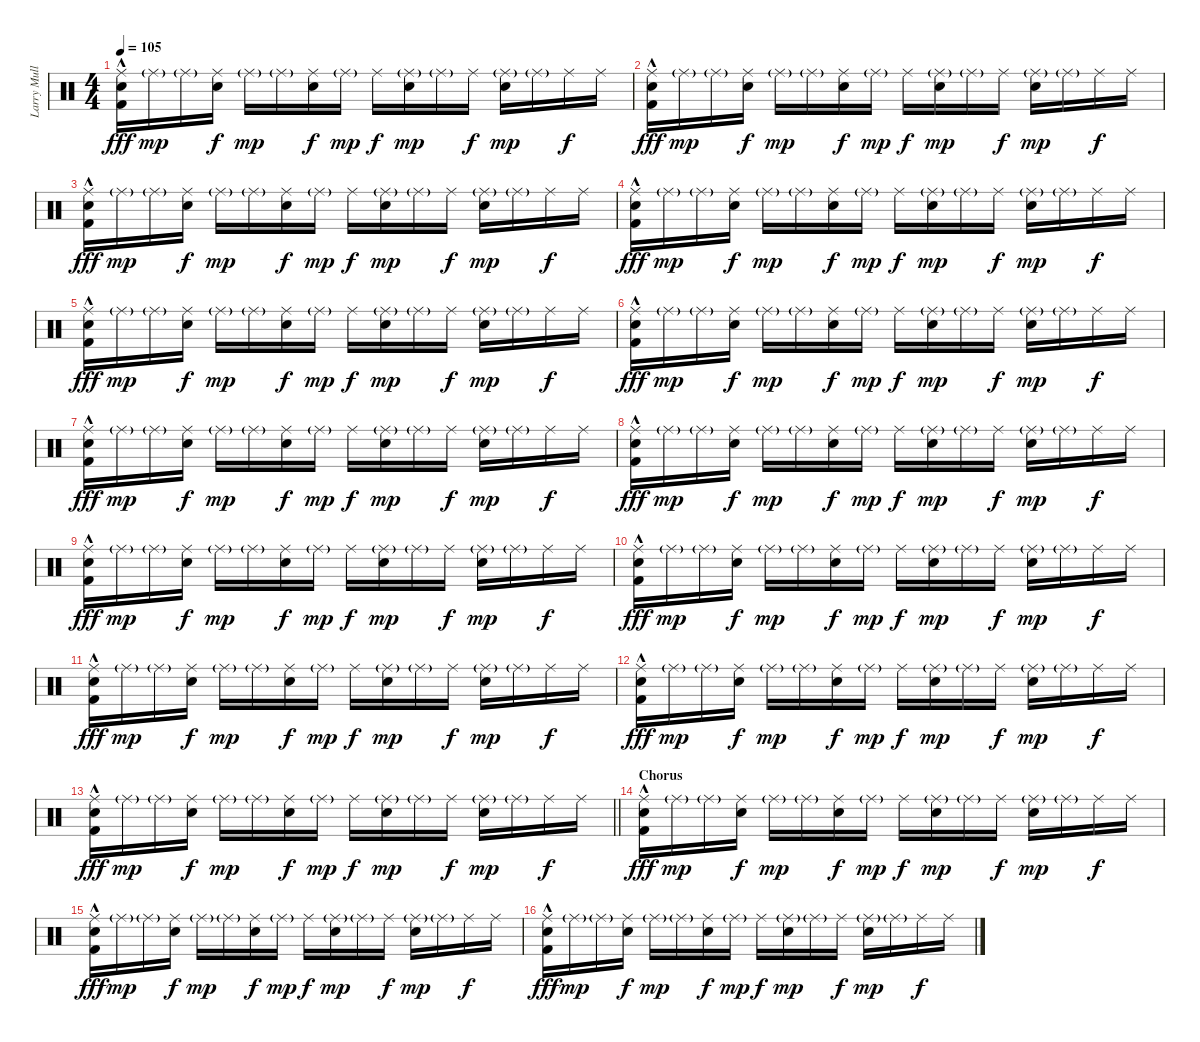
\track ("Larry Mullen Jr." "Larry Mull") {instrument percussion}
\staff {score}
\articulation defaults
\ts (4 4)
\tempo 105
\clef neutral
\ks c
("Ride (middle)" "Electric Snare (hit)" "Kick (hit) 2"{hac}).16{dy fff} "Ride (middle)"{g}.16{dy mp} "Ride (middle)"{g}.16 ("Ride (middle)" "Electric Snare (hit)").16{dy f} "Ride (middle)"{g}.16{dy mp} "Ride (middle)"{g}.16 ("Ride (middle)" "Electric Snare (hit)").16{dy f} "Ride (middle)"{g}.16{dy mp} "Ride (middle)".16{dy f} ("Ride (middle)"{g} "Electric Snare (hit)").16{dy mp} "Ride (middle)"{g}.16 "Ride (middle)".16{dy f} ("Ride (middle)"{g} "Electric Snare (hit)").16{dy mp} "Ride (middle)"{g}.16 "Ride (middle)".16{dy f} "Ride (middle)".16 |
("Ride (middle)" "Electric Snare (hit)" "Kick (hit) 2"{hac}).16{dy fff} "Ride (middle)"{g}.16{dy mp} "Ride (middle)"{g}.16 ("Ride (middle)" "Electric Snare (hit)").16{dy f} "Ride (middle)"{g}.16{dy mp} "Ride (middle)"{g}.16 ("Ride (middle)" "Electric Snare (hit)").16{dy f} "Ride (middle)"{g}.16{dy mp} "Ride (middle)".16{dy f} ("Ride (middle)"{g} "Electric Snare (hit)").16{dy mp} "Ride (middle)"{g}.16 "Ride (middle)".16{dy f} ("Ride (middle)"{g} "Electric Snare (hit)").16{dy mp} "Ride (middle)"{g}.16 "Ride (middle)".16{dy f} "Ride (middle)".16 |
("Ride (middle)" "Electric Snare (hit)" "Kick (hit) 2"{hac}).16{dy fff} "Ride (middle)"{g}.16{dy mp} "Ride (middle)"{g}.16 ("Ride (middle)" "Electric Snare (hit)").16{dy f} "Ride (middle)"{g}.16{dy mp} "Ride (middle)"{g}.16 ("Ride (middle)" "Electric Snare (hit)").16{dy f} "Ride (middle)"{g}.16{dy mp} "Ride (middle)".16{dy f} ("Ride (middle)"{g} "Electric Snare (hit)").16{dy mp} "Ride (middle)"{g}.16 "Ride (middle)".16{dy f} ("Ride (middle)"{g} "Electric Snare (hit)").16{dy mp} "Ride (middle)"{g}.16 "Ride (middle)".16{dy f} "Ride (middle)".16 |
("Ride (middle)" "Electric Snare (hit)" "Kick (hit) 2"{hac}).16{dy fff} "Ride (middle)"{g}.16{dy mp} "Ride (middle)"{g}.16 ("Ride (middle)" "Electric Snare (hit)").16{dy f} "Ride (middle)"{g}.16{dy mp} "Ride (middle)"{g}.16 ("Ride (middle)" "Electric Snare (hit)").16{dy f} "Ride (middle)"{g}.16{dy mp} "Ride (middle)".16{dy f} ("Ride (middle)"{g} "Electric Snare (hit)").16{dy mp} "Ride (middle)"{g}.16 "Ride (middle)".16{dy f} ("Ride (middle)"{g} "Electric Snare (hit)").16{dy mp} "Ride (middle)"{g}.16 "Ride (middle)".16{dy f} "Ride (middle)".16 |
("Ride (middle)" "Electric Snare (hit)" "Kick (hit) 2"{hac}).16{dy fff} "Ride (middle)"{g}.16{dy mp} "Ride (middle)"{g}.16 ("Ride (middle)" "Electric Snare (hit)").16{dy f} "Ride (middle)"{g}.16{dy mp} "Ride (middle)"{g}.16 ("Ride (middle)" "Electric Snare (hit)").16{dy f} "Ride (middle)"{g}.16{dy mp} "Ride (middle)".16{dy f} ("Ride (middle)"{g} "Electric Snare (hit)").16{dy mp} "Ride (middle)"{g}.16 "Ride (middle)".16{dy f} ("Ride (middle)"{g} "Electric Snare (hit)").16{dy mp} "Ride (middle)"{g}.16 "Ride (middle)".16{dy f} "Ride (middle)".16 |
("Ride (middle)" "Electric Snare (hit)" "Kick (hit) 2"{hac}).16{dy fff} "Ride (middle)"{g}.16{dy mp} "Ride (middle)"{g}.16 ("Ride (middle)" "Electric Snare (hit)").16{dy f} "Ride (middle)"{g}.16{dy mp} "Ride (middle)"{g}.16 ("Ride (middle)" "Electric Snare (hit)").16{dy f} "Ride (middle)"{g}.16{dy mp} "Ride (middle)".16{dy f} ("Ride (middle)"{g} "Electric Snare (hit)").16{dy mp} "Ride (middle)"{g}.16 "Ride (middle)".16{dy f} ("Ride (middle)"{g} "Electric Snare (hit)").16{dy mp} "Ride (middle)"{g}.16 "Ride (middle)".16{dy f} "Ride (middle)".16 |
("Ride (middle)" "Electric Snare (hit)" "Kick (hit) 2"{hac}).16{dy fff} "Ride (middle)"{g}.16{dy mp} "Ride (middle)"{g}.16 ("Ride (middle)" "Electric Snare (hit)").16{dy f} "Ride (middle)"{g}.16{dy mp} "Ride (middle)"{g}.16 ("Ride (middle)" "Electric Snare (hit)").16{dy f} "Ride (middle)"{g}.16{dy mp} "Ride (middle)".16{dy f} ("Ride (middle)"{g} "Electric Snare (hit)").16{dy mp} "Ride (middle)"{g}.16 "Ride (middle)".16{dy f} ("Ride (middle)"{g} "Electric Snare (hit)").16{dy mp} "Ride (middle)"{g}.16 "Ride (middle)".16{dy f} "Ride (middle)".16 |
("Ride (middle)" "Electric Snare (hit)" "Kick (hit) 2"{hac}).16{dy fff} "Ride (middle)"{g}.16{dy mp} "Ride (middle)"{g}.16 ("Ride (middle)" "Electric Snare (hit)").16{dy f} "Ride (middle)"{g}.16{dy mp} "Ride (middle)"{g}.16 ("Ride (middle)" "Electric Snare (hit)").16{dy f} "Ride (middle)"{g}.16{dy mp} "Ride (middle)".16{dy f} ("Ride (middle)"{g} "Electric Snare (hit)").16{dy mp} "Ride (middle)"{g}.16 "Ride (middle)".16{dy f} ("Ride (middle)"{g} "Electric Snare (hit)").16{dy mp} "Ride (middle)"{g}.16 "Ride (middle)".16{dy f} "Ride (middle)".16 |
("Ride (middle)" "Electric Snare (hit)" "Kick (hit) 2"{hac}).16{dy fff} "Ride (middle)"{g}.16{dy mp} "Ride (middle)"{g}.16 ("Ride (middle)" "Electric Snare (hit)").16{dy f} "Ride (middle)"{g}.16{dy mp} "Ride (middle)"{g}.16 ("Ride (middle)" "Electric Snare (hit)").16{dy f} "Ride (middle)"{g}.16{dy mp} "Ride (middle)".16{dy f} ("Ride (middle)"{g} "Electric Snare (hit)").16{dy mp} "Ride (middle)"{g}.16 "Ride (middle)".16{dy f} ("Ride (middle)"{g} "Electric Snare (hit)").16{dy mp} "Ride (middle)"{g}.16 "Ride (middle)".16{dy f} "Ride (middle)".16 |
("Ride (middle)" "Electric Snare (hit)" "Kick (hit) 2"{hac}).16{dy fff} "Ride (middle)"{g}.16{dy mp} "Ride (middle)"{g}.16 ("Ride (middle)" "Electric Snare (hit)").16{dy f} "Ride (middle)"{g}.16{dy mp} "Ride (middle)"{g}.16 ("Ride (middle)" "Electric Snare (hit)").16{dy f} "Ride (middle)"{g}.16{dy mp} "Ride (middle)".16{dy f} ("Ride (middle)"{g} "Electric Snare (hit)").16{dy mp} "Ride (middle)"{g}.16 "Ride (middle)".16{dy f} ("Ride (middle)"{g} "Electric Snare (hit)").16{dy mp} "Ride (middle)"{g}.16 "Ride (middle)".16{dy f} "Ride (middle)".16 |
("Ride (middle)" "Electric Snare (hit)" "Kick (hit) 2"{hac}).16{dy fff} "Ride (middle)"{g}.16{dy mp} "Ride (middle)"{g}.16 ("Ride (middle)" "Electric Snare (hit)").16{dy f} "Ride (middle)"{g}.16{dy mp} "Ride (middle)"{g}.16 ("Ride (middle)" "Electric Snare (hit)").16{dy f} "Ride (middle)"{g}.16{dy mp} "Ride (middle)".16{dy f} ("Ride (middle)"{g} "Electric Snare (hit)").16{dy mp} "Ride (middle)"{g}.16 "Ride (middle)".16{dy f} ("Ride (middle)"{g} "Electric Snare (hit)").16{dy mp} "Ride (middle)"{g}.16 "Ride (middle)".16{dy f} "Ride (middle)".16 |
("Ride (middle)" "Electric Snare (hit)" "Kick (hit) 2"{hac}).16{dy fff} "Ride (middle)"{g}.16{dy mp} "Ride (middle)"{g}.16 ("Ride (middle)" "Electric Snare (hit)").16{dy f} "Ride (middle)"{g}.16{dy mp} "Ride (middle)"{g}.16 ("Ride (middle)" "Electric Snare (hit)").16{dy f} "Ride (middle)"{g}.16{dy mp} "Ride (middle)".16{dy f} ("Ride (middle)"{g} "Electric Snare (hit)").16{dy mp} "Ride (middle)"{g}.16 "Ride (middle)".16{dy f} ("Ride (middle)"{g} "Electric Snare (hit)").16{dy mp} "Ride (middle)"{g}.16 "Ride (middle)".16{dy f} "Ride (middle)".16 |
\barLineRight lightlight
("Ride (middle)" "Electric Snare (hit)" "Kick (hit) 2"{hac}).16{dy fff} "Ride (middle)"{g}.16{dy mp} "Ride (middle)"{g}.16 ("Ride (middle)" "Electric Snare (hit)").16{dy f} "Ride (middle)"{g}.16{dy mp} "Ride (middle)"{g}.16 ("Ride (middle)" "Electric Snare (hit)").16{dy f} "Ride (middle)"{g}.16{dy mp} "Ride (middle)".16{dy f} ("Ride (middle)"{g} "Electric Snare (hit)").16{dy mp} "Ride (middle)"{g}.16 "Ride (middle)".16{dy f} ("Ride (middle)"{g} "Electric Snare (hit)").16{dy mp} "Ride (middle)"{g}.16 "Ride (middle)".16{dy f} "Ride (middle)".16 |
\section ("" "Chorus")
("Ride (middle)" "Electric Snare (hit)" "Kick (hit) 2"{hac}).16{dy fff} "Ride (middle)"{g}.16{dy mp} "Ride (middle)"{g}.16 ("Ride (middle)" "Electric Snare (hit)").16{dy f} "Ride (middle)"{g}.16{dy mp} "Ride (middle)"{g}.16 ("Ride (middle)" "Electric Snare (hit)").16{dy f} "Ride (middle)"{g}.16{dy mp} "Ride (middle)".16{dy f} ("Ride (middle)"{g} "Electric Snare (hit)").16{dy mp} "Ride (middle)"{g}.16 "Ride (middle)".16{dy f} ("Ride (middle)"{g} "Electric Snare (hit)").16{dy mp} "Ride (middle)"{g}.16 "Ride (middle)".16{dy f} "Ride (middle)".16 |
("Ride (middle)" "Electric Snare (hit)" "Kick (hit) 2"{hac}).16{dy fff} "Ride (middle)"{g}.16{dy mp} "Ride (middle)"{g}.16 ("Ride (middle)" "Electric Snare (hit)").16{dy f} "Ride (middle)"{g}.16{dy mp} "Ride (middle)"{g}.16 ("Ride (middle)" "Electric Snare (hit)").16{dy f} "Ride (middle)"{g}.16{dy mp} "Ride (middle)".16{dy f} ("Ride (middle)"{g} "Electric Snare (hit)").16{dy mp} "Ride (middle)"{g}.16 "Ride (middle)".16{dy f} ("Ride (middle)"{g} "Electric Snare (hit)").16{dy mp} "Ride (middle)"{g}.16 "Ride (middle)".16{dy f} "Ride (middle)".16 |
("Ride (middle)" "Electric Snare (hit)" "Kick (hit) 2"{hac}).16{dy fff} "Ride (middle)"{g}.16{dy mp} "Ride (middle)"{g}.16 ("Ride (middle)" "Electric Snare (hit)").16{dy f} "Ride (middle)"{g}.16{dy mp} "Ride (middle)"{g}.16 ("Ride (middle)" "Electric Snare (hit)").16{dy f} "Ride (middle)"{g}.16{dy mp} "Ride (middle)".16{dy f} ("Ride (middle)"{g} "Electric Snare (hit)").16{dy mp} "Ride (middle)"{g}.16 "Ride (middle)".16{dy f} ("Ride (middle)"{g} "Electric Snare (hit)").16{dy mp} "Ride (middle)"{g}.16 "Ride (middle)".16{dy f} "Ride (middle)".16
